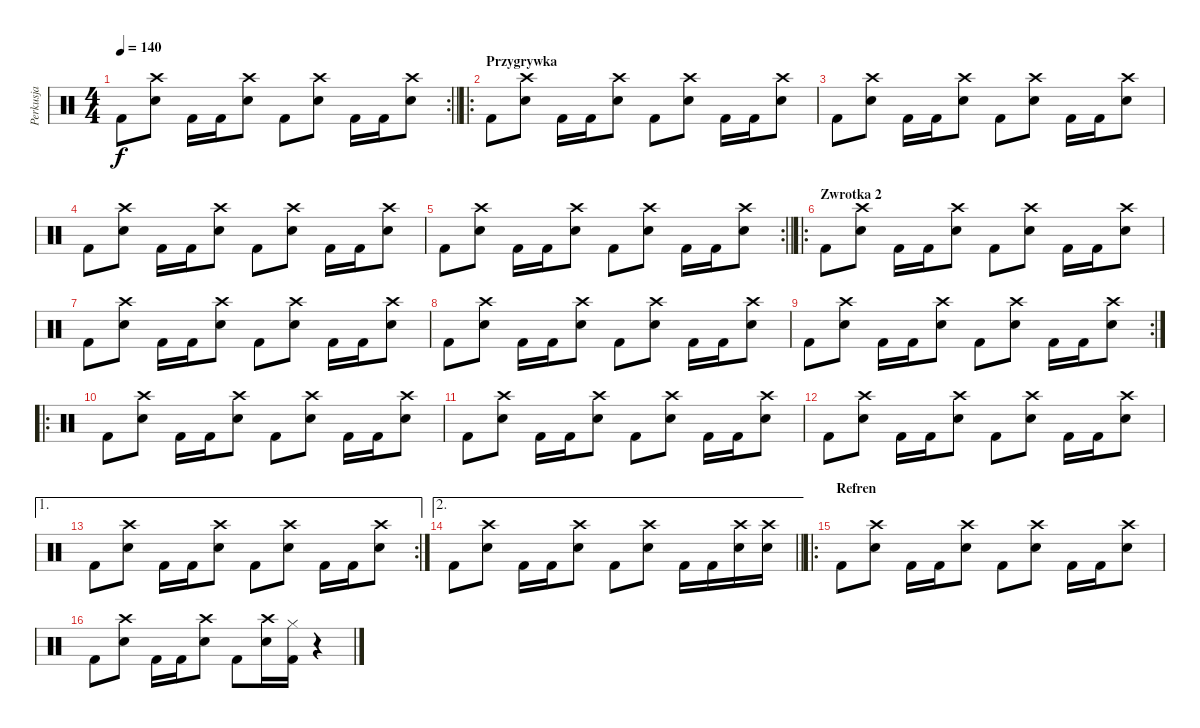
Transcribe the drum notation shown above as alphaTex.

\track ("Perkusja" "Perkusja") {instrument percussion}
\staff {score}
\articulation defaults
\rc 2
\ts (4 4)
\tempo 140
\clef neutral
\barLineRight lightlight
\ks c "Kick (hit) 2".8{dy f}
("Crash high (hit)" "Snare (hit) 2").8 "Kick (hit) 2".16 "Kick (hit) 2".16 ("Crash high (hit)" "Snare (hit) 2").8 "Kick (hit) 2".8 ("Crash high (hit)" "Snare (hit) 2").8 "Kick (hit) 2".16 "Kick (hit) 2".16 ("Crash high (hit)" "Snare (hit) 2").8 |
\ro
\section ("" "Przygrywka")
"Kick (hit) 2".8 ("Crash high (hit)" "Snare (hit) 2").8 "Kick (hit) 2".16 "Kick (hit) 2".16 ("Crash high (hit)" "Snare (hit) 2").8 "Kick (hit) 2".8 ("Crash high (hit)" "Snare (hit) 2").8 "Kick (hit) 2".16 "Kick (hit) 2".16 ("Crash high (hit)" "Snare (hit) 2").8 |
"Kick (hit) 2".8 ("Crash high (hit)" "Snare (hit) 2").8 "Kick (hit) 2".16 "Kick (hit) 2".16 ("Crash high (hit)" "Snare (hit) 2").8 "Kick (hit) 2".8 ("Crash high (hit)" "Snare (hit) 2").8 "Kick (hit) 2".16 "Kick (hit) 2".16 ("Crash high (hit)" "Snare (hit) 2").8 |
"Kick (hit) 2".8 ("Crash high (hit)" "Snare (hit) 2").8 "Kick (hit) 2".16 "Kick (hit) 2".16 ("Crash high (hit)" "Snare (hit) 2").8 "Kick (hit) 2".8 ("Crash high (hit)" "Snare (hit) 2").8 "Kick (hit) 2".16 "Kick (hit) 2".16 ("Crash high (hit)" "Snare (hit) 2").8 |
\rc 2
\barLineRight lightlight "Kick (hit) 2".8
("Crash high (hit)" "Snare (hit) 2").8 "Kick (hit) 2".16 "Kick (hit) 2".16 ("Crash high (hit)" "Snare (hit) 2").8 "Kick (hit) 2".8 ("Crash high (hit)" "Snare (hit) 2").8 "Kick (hit) 2".16 "Kick (hit) 2".16 ("Crash high (hit)" "Snare (hit) 2").8 |
\ro
\section ("" "Zwrotka 2")
"Kick (hit) 2".8 ("Crash high (hit)" "Snare (hit) 2").8 "Kick (hit) 2".16 "Kick (hit) 2".16 ("Crash high (hit)" "Snare (hit) 2").8 "Kick (hit) 2".8 ("Crash high (hit)" "Snare (hit) 2").8 "Kick (hit) 2".16 "Kick (hit) 2".16 ("Crash high (hit)" "Snare (hit) 2").8 |
"Kick (hit) 2".8 ("Crash high (hit)" "Snare (hit) 2").8 "Kick (hit) 2".16 "Kick (hit) 2".16 ("Crash high (hit)" "Snare (hit) 2").8 "Kick (hit) 2".8 ("Crash high (hit)" "Snare (hit) 2").8 "Kick (hit) 2".16 "Kick (hit) 2".16 ("Crash high (hit)" "Snare (hit) 2").8 |
"Kick (hit) 2".8 ("Crash high (hit)" "Snare (hit) 2").8 "Kick (hit) 2".16 "Kick (hit) 2".16 ("Crash high (hit)" "Snare (hit) 2").8 "Kick (hit) 2".8 ("Crash high (hit)" "Snare (hit) 2").8 "Kick (hit) 2".16 "Kick (hit) 2".16 ("Crash high (hit)" "Snare (hit) 2").8 |
\rc 2 "Kick (hit) 2".8
("Crash high (hit)" "Snare (hit) 2").8 "Kick (hit) 2".16 "Kick (hit) 2".16 ("Crash high (hit)" "Snare (hit) 2").8 "Kick (hit) 2".8 ("Crash high (hit)" "Snare (hit) 2").8 "Kick (hit) 2".16 "Kick (hit) 2".16 ("Crash high (hit)" "Snare (hit) 2").8 |
\ro "Kick (hit) 2".8
("Crash high (hit)" "Snare (hit) 2").8 "Kick (hit) 2".16 "Kick (hit) 2".16 ("Crash high (hit)" "Snare (hit) 2").8 "Kick (hit) 2".8 ("Crash high (hit)" "Snare (hit) 2").8 "Kick (hit) 2".16 "Kick (hit) 2".16 ("Crash high (hit)" "Snare (hit) 2").8 |
"Kick (hit) 2".8 ("Crash high (hit)" "Snare (hit) 2").8 "Kick (hit) 2".16 "Kick (hit) 2".16 ("Crash high (hit)" "Snare (hit) 2").8 "Kick (hit) 2".8 ("Crash high (hit)" "Snare (hit) 2").8 "Kick (hit) 2".16 "Kick (hit) 2".16 ("Crash high (hit)" "Snare (hit) 2").8 |
"Kick (hit) 2".8 ("Crash high (hit)" "Snare (hit) 2").8 "Kick (hit) 2".16 "Kick (hit) 2".16 ("Crash high (hit)" "Snare (hit) 2").8 "Kick (hit) 2".8 ("Crash high (hit)" "Snare (hit) 2").8 "Kick (hit) 2".16 "Kick (hit) 2".16 ("Crash high (hit)" "Snare (hit) 2").8 |
\ae 1
\rc 2 "Kick (hit) 2".8
("Crash high (hit)" "Snare (hit) 2").8 "Kick (hit) 2".16 "Kick (hit) 2".16 ("Crash high (hit)" "Snare (hit) 2").8 "Kick (hit) 2".8 ("Crash high (hit)" "Snare (hit) 2").8 "Kick (hit) 2".16 "Kick (hit) 2".16 ("Crash high (hit)" "Snare (hit) 2").8 |
\ae 2
\barLineRight lightlight "Kick (hit) 2".8
("Crash high (hit)" "Snare (hit) 2").8 "Kick (hit) 2".16 "Kick (hit) 2".16 ("Crash high (hit)" "Snare (hit) 2").8 "Kick (hit) 2".8 ("Crash high (hit)" "Snare (hit) 2").8 "Kick (hit) 2".16 "Kick (hit) 2".16 ("Crash high (hit)" "Snare (hit) 2").16 ("Crash high (hit)" "Snare (hit) 2").16 |
\ro
\section ("" "Refren")
"Kick (hit) 2".8 ("Crash high (hit)" "Snare (hit) 2").8 "Kick (hit) 2".16 "Kick (hit) 2".16 ("Crash high (hit)" "Snare (hit) 2").8 "Kick (hit) 2".8 ("Crash high (hit)" "Snare (hit) 2").8 "Kick (hit) 2".16 "Kick (hit) 2".16 ("Crash high (hit)" "Snare (hit) 2").8 |
"Kick (hit) 2".8 ("Crash high (hit)" "Snare (hit) 2").8 "Kick (hit) 2".16 "Kick (hit) 2".16 ("Crash high (hit)" "Snare (hit) 2").8 "Kick (hit) 2".8 ("Crash high (hit)" "Snare (hit) 2").16 ("Hi-Hat (closed)" "Kick (hit) 2").16 r.4
